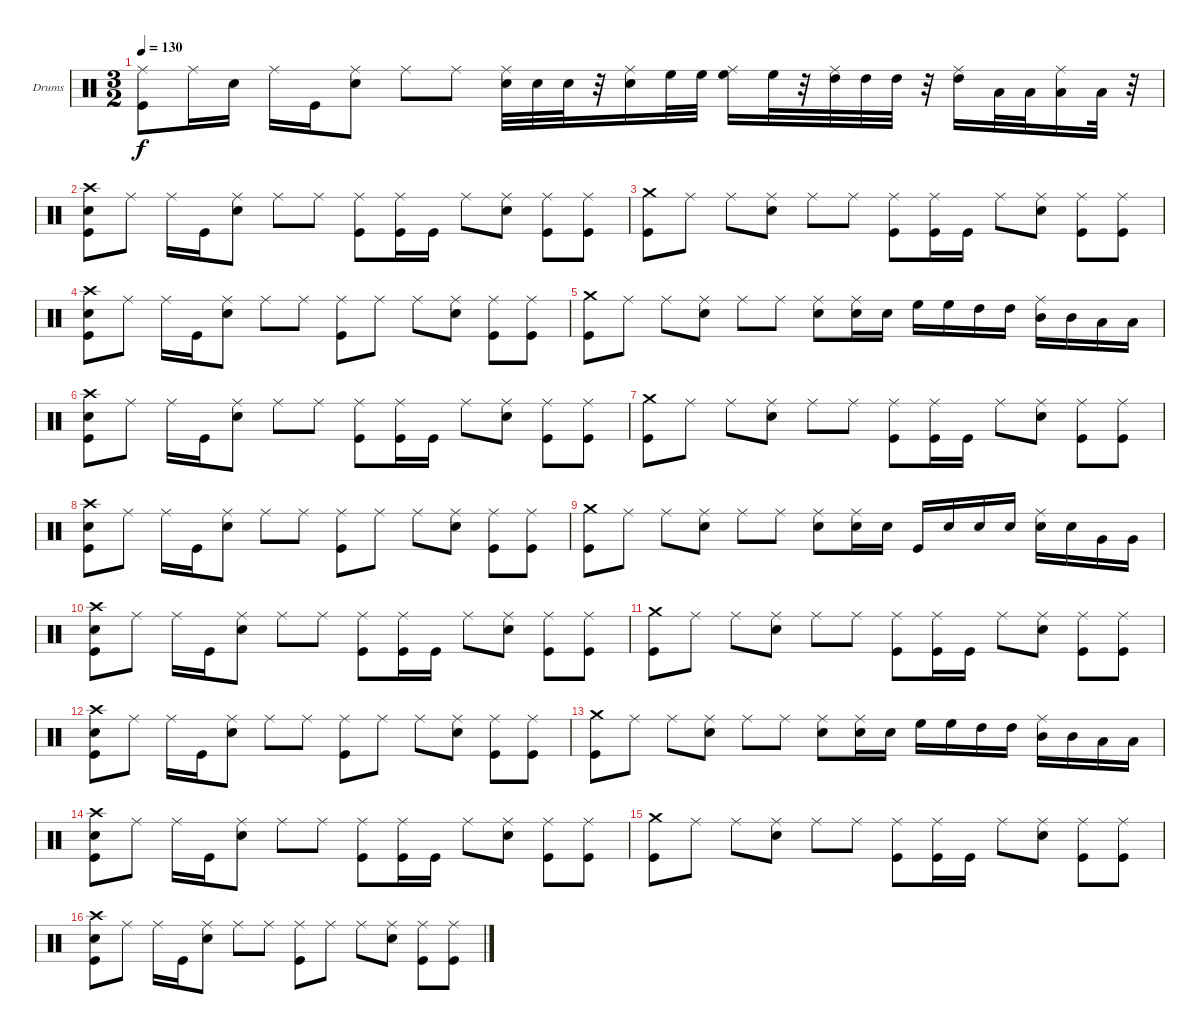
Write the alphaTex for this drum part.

\bracketExtendMode groupsimilarinstruments
\firstSystemTrackNameOrientation horizontal
\otherSystemsTrackNameOrientation horizontal
\track ("Барабаны" "Drums") {instrument percussion}
\staff {score}
\articulation defaults
\ts (3 2)
\tempo 130
\clef neutral
\ks c
("Kick (hit)" "Ride (middle)").8{dy f} "Ride (middle)".16 "Snare (hit) 2".16 "Ride (middle)".16 "Kick (hit)".16 ("Snare (hit) 2" "Ride (middle)").8 "Ride (middle)".8 "Ride (middle)".8 ("Snare (hit) 2" "Ride (middle)").32 "Snare (hit) 2".32 "Snare (hit) 2".32 r.32 ("Ride (middle)" "Snare (hit) 2").16 "High Floor Tom (hit)".32 "High Floor Tom (hit)".32 ("High Floor Tom (hit)" "Ride (middle)").16 "High Floor Tom (hit)".32 r.32 ("High Tom (hit)" "Ride (middle)").32 "High Tom (hit)".32 "High Tom (hit)".32 r.32 ("Ride (middle)" "High Tom (hit)").16 "Low Tom (hit)".32 "Low Tom (hit)".32 ("Ride (middle)" "Low Tom (hit)").16 "Low Tom (hit)".32 r.32 |
("Kick (hit)" "Snare (hit) 2" "Crash high (hit)").8 "Ride (middle)".8 "Ride (middle)".16 "Kick (hit)".16 ("Snare (hit) 2" "Ride (middle)").8 "Ride (middle)".8 "Ride (middle)".8 ("Kick (hit)" "Ride (middle)").8 ("Ride (middle)" "Kick (hit)").16 "Kick (hit)".16 "Ride (middle)".8 ("Snare (hit) 2" "Ride (middle)").8 ("Ride (middle)" "Kick (hit)").8 ("Ride (middle)" "Kick (hit)").8 |
("Kick (hit)" "Crash medium (hit)").8 "Ride (middle)".8 "Ride (middle)".8 ("Snare (hit) 2" "Ride (middle)").8 "Ride (middle)".8 "Ride (middle)".8 ("Kick (hit)" "Ride (middle)").8 ("Kick (hit)" "Ride (middle)").16 "Kick (hit)".16 "Ride (middle)".8 ("Ride (middle)" "Snare (hit) 2").8 ("Kick (hit)" "Ride (middle)").8 ("Kick (hit)" "Ride (middle)").8 |
("Snare (hit) 2" "Crash high (hit)" "Kick (hit)").8 "Ride (middle)".8 "Ride (middle)".16 "Kick (hit)".16 ("Ride (middle)" "Snare (hit) 2").8 "Ride (middle)".8 "Ride (middle)".8 ("Kick (hit)" "Ride (middle)").8 "Ride (middle)".8 "Ride (middle)".8 ("Ride (middle)" "Snare (hit) 2").8 ("Ride (middle)" "Kick (hit)").8 ("Ride (middle)" "Kick (hit)").8 |
("Kick (hit)" "Crash medium (hit)").8 "Ride (middle)".8 "Ride (middle)".8 ("Snare (hit) 2" "Ride (middle)").8 "Ride (middle)".8 "Ride (middle)".8 ("Snare (hit) 2" "Ride (middle)").8 ("Ride (middle)" "Snare (hit) 2").16 "Snare (hit) 2".16 "High Floor Tom (hit)".16 "High Floor Tom (hit)".16 "High Tom (hit)".16 "High Tom (hit)".16 ("Ride (middle)" "Mid Tom (hit)").16 "Mid Tom (hit)".16 "Low Tom (hit)".16 "Low Tom (hit)".16 |
("Crash high (hit)" "Kick (hit)" "Snare (hit) 2").8 "Ride (middle)".8 "Ride (middle)".16 "Kick (hit)".16 ("Ride (middle)" "Snare (hit) 2").8 "Ride (middle)".8 "Ride (middle)".8 ("Kick (hit)" "Ride (middle)").8 ("Ride (middle)" "Kick (hit)").16 "Kick (hit)".16 "Ride (middle)".8 ("Snare (hit) 2" "Ride (middle)").8 ("Kick (hit)" "Ride (middle)").8 ("Kick (hit)" "Ride (middle)").8 |
("Crash medium (hit)" "Kick (hit)").8 "Ride (middle)".8 "Ride (middle)".8 ("Ride (middle)" "Snare (hit) 2").8 "Ride (middle)".8 "Ride (middle)".8 ("Kick (hit)" "Ride (middle)").8 ("Kick (hit)" "Ride (middle)").16 "Kick (hit)".16 "Ride (middle)".8 ("Ride (middle)" "Snare (hit) 2").8 ("Kick (hit)" "Ride (middle)").8 ("Kick (hit)" "Ride (middle)").8 |
("Kick (hit)" "Crash high (hit)" "Snare (hit) 2").8 "Ride (middle)".8 "Ride (middle)".16 "Kick (hit)".16 ("Snare (hit) 2" "Ride (middle)").8 "Ride (middle)".8 "Ride (middle)".8 ("Ride (middle)" "Kick (hit)").8 "Ride (middle)".8 "Ride (middle)".8 ("Snare (hit) 2" "Ride (middle)").8 ("Kick (hit)" "Ride (middle)").8 ("Kick (hit)" "Ride (middle)").8 |
("Kick (hit)" "Crash medium (hit)").8 "Ride (middle)".8 "Ride (middle)".8 ("Snare (hit) 2" "Ride (middle)").8 "Ride (middle)".8 "Ride (middle)".8 ("Snare (hit) 2" "Ride (middle)").8 ("Snare (hit) 2" "Ride (middle)").16 "Snare (hit) 2".16 "Kick (hit)".16 "Snare (hit) 2".16 "Snare (hit) 2".16 "Snare (hit) 2".16 ("Ride (middle)" "Snare (hit) 2").16 "Snare (hit) 2".16 "Very Low Tom (hit)".16 "Very Low Tom (hit)".16 |
("Crash high (hit)" "Kick (hit)" "Snare (hit) 2").8 "Ride (middle)".8 "Ride (middle)".16 "Kick (hit)".16 ("Snare (hit) 2" "Ride (middle)").8 "Ride (middle)".8 "Ride (middle)".8 ("Ride (middle)" "Kick (hit)").8 ("Ride (middle)" "Kick (hit)").16 "Kick (hit)".16 "Ride (middle)".8 ("Snare (hit) 2" "Ride (middle)").8 ("Kick (hit)" "Ride (middle)").8 ("Ride (middle)" "Kick (hit)").8 |
("Crash medium (hit)" "Kick (hit)").8 "Ride (middle)".8 "Ride (middle)".8 ("Ride (middle)" "Snare (hit) 2").8 "Ride (middle)".8 "Ride (middle)".8 ("Kick (hit)" "Ride (middle)").8 ("Ride (middle)" "Kick (hit)").16 "Kick (hit)".16 "Ride (middle)".8 ("Snare (hit) 2" "Ride (middle)").8 ("Kick (hit)" "Ride (middle)").8 ("Ride (middle)" "Kick (hit)").8 |
("Kick (hit)" "Crash high (hit)" "Snare (hit) 2").8 "Ride (middle)".8 "Ride (middle)".16 "Kick (hit)".16 ("Ride (middle)" "Snare (hit) 2").8 "Ride (middle)".8 "Ride (middle)".8 ("Kick (hit)" "Ride (middle)").8 "Ride (middle)".8 "Ride (middle)".8 ("Ride (middle)" "Snare (hit) 2").8 ("Kick (hit)" "Ride (middle)").8 ("Kick (hit)" "Ride (middle)").8 |
("Kick (hit)" "Crash medium (hit)").8 "Ride (middle)".8 "Ride (middle)".8 ("Snare (hit) 2" "Ride (middle)").8 "Ride (middle)".8 "Ride (middle)".8 ("Snare (hit) 2" "Ride (middle)").8 ("Ride (middle)" "Snare (hit) 2").16 "Snare (hit) 2".16 "High Floor Tom (hit)".16 "High Floor Tom (hit)".16 "High Tom (hit)".16 "High Tom (hit)".16 ("Ride (middle)" "Mid Tom (hit)").16 "Mid Tom (hit)".16 "Low Tom (hit)".16 "Low Tom (hit)".16 |
("Snare (hit) 2" "Crash high (hit)" "Kick (hit)").8 "Ride (middle)".8 "Ride (middle)".16 "Kick (hit)".16 ("Snare (hit) 2" "Ride (middle)").8 "Ride (middle)".8 "Ride (middle)".8 ("Kick (hit)" "Ride (middle)").8 ("Ride (middle)" "Kick (hit)").16 "Kick (hit)".16 "Ride (middle)".8 ("Snare (hit) 2" "Ride (middle)").8 ("Ride (middle)" "Kick (hit)").8 ("Kick (hit)" "Ride (middle)").8 |
("Crash medium (hit)" "Kick (hit)").8 "Ride (middle)".8 "Ride (middle)".8 ("Snare (hit) 2" "Ride (middle)").8 "Ride (middle)".8 "Ride (middle)".8 ("Ride (middle)" "Kick (hit)").8 ("Ride (middle)" "Kick (hit)").16 "Kick (hit)".16 "Ride (middle)".8 ("Snare (hit) 2" "Ride (middle)").8 ("Kick (hit)" "Ride (middle)").8 ("Ride (middle)" "Kick (hit)").8 |
("Snare (hit) 2" "Crash high (hit)" "Kick (hit)").8 "Ride (middle)".8 "Ride (middle)".16 "Kick (hit)".16 ("Snare (hit) 2" "Ride (middle)").8 "Ride (middle)".8 "Ride (middle)".8 ("Kick (hit)" "Ride (middle)").8 "Ride (middle)".8 "Ride (middle)".8 ("Ride (middle)" "Snare (hit) 2").8 ("Ride (middle)" "Kick (hit)").8 ("Kick (hit)" "Ride (middle)").8
